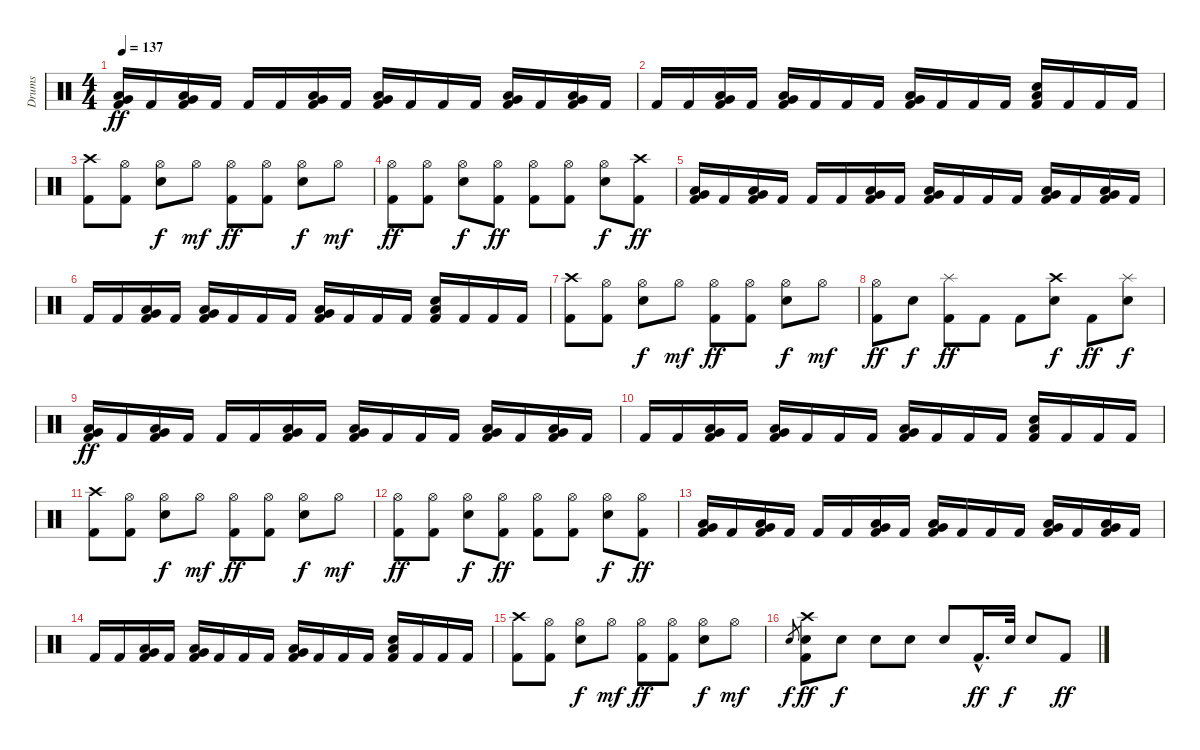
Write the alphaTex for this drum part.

\track ("Drums" "Drums") {instrument percussion}
\staff {score}
\articulation defaults
\ts (4 4)
\tempo 137
\clef neutral
\ks c
("Very Low Tom (hit)" "Low Floor Tom (hit)" "Kick (hit) 2").16{dy ff} "Kick (hit) 2".16 ("Very Low Tom (hit)" "Low Floor Tom (hit)" "Kick (hit) 2").16 "Kick (hit) 2".16 "Kick (hit) 2".16 "Kick (hit) 2".16 ("Very Low Tom (hit)" "Low Floor Tom (hit)" "Kick (hit) 2").16 "Kick (hit) 2".16 ("Very Low Tom (hit)" "Low Floor Tom (hit)" "Kick (hit) 2").16 "Kick (hit) 2".16 "Kick (hit) 2".16 "Kick (hit) 2".16 ("Very Low Tom (hit)" "Low Floor Tom (hit)" "Kick (hit) 2").16 "Kick (hit) 2".16 ("Very Low Tom (hit)" "Low Floor Tom (hit)" "Kick (hit) 2").16 "Kick (hit) 2".16 |
"Kick (hit) 2".16 "Kick (hit) 2".16 ("Very Low Tom (hit)" "Low Floor Tom (hit)" "Kick (hit) 2").16 "Kick (hit) 2".16 ("Very Low Tom (hit)" "Low Floor Tom (hit)" "Kick (hit) 2").16 "Kick (hit) 2".16 "Kick (hit) 2".16 "Kick (hit) 2".16 ("Very Low Tom (hit)" "Low Floor Tom (hit)" "Kick (hit) 2").16 "Kick (hit) 2".16 "Kick (hit) 2".16 "Kick (hit) 2".16 ("Electric Snare (hit)" "Low Floor Tom (hit)" "Kick (hit) 2").16 "Kick (hit) 2".16 "Kick (hit) 2".16 "Kick (hit) 2".16 |
("Crash high (hit)" "Kick (hit) 2").8 ("Hi-Hat (open)" "Kick (hit) 2").8 ("Hi-Hat (open)" "Electric Snare (hit)").8{dy f} "Hi-Hat (open)".8{dy mf} ("Hi-Hat (open)" "Kick (hit) 2").8{dy ff} ("Hi-Hat (open)" "Kick (hit) 2").8 ("Hi-Hat (open)" "Electric Snare (hit)").8{dy f} "Hi-Hat (open)".8{dy mf} |
("Hi-Hat (open)" "Kick (hit) 2").8{dy ff} ("Hi-Hat (open)" "Kick (hit) 2").8 ("Hi-Hat (open)" "Electric Snare (hit)").8{dy f} ("Hi-Hat (open)" "Kick (hit) 2").8{dy ff} ("Hi-Hat (open)" "Kick (hit) 2").8 ("Hi-Hat (open)" "Kick (hit) 2").8 ("Hi-Hat (open)" "Electric Snare (hit)").8{dy f} ("Crash high (hit)" "Kick (hit) 2").8{dy ff} |
("Very Low Tom (hit)" "Low Floor Tom (hit)" "Kick (hit) 2").16 "Kick (hit) 2".16 ("Very Low Tom (hit)" "Low Floor Tom (hit)" "Kick (hit) 2").16 "Kick (hit) 2".16 "Kick (hit) 2".16 "Kick (hit) 2".16 ("Very Low Tom (hit)" "Low Floor Tom (hit)" "Kick (hit) 2").16 "Kick (hit) 2".16 ("Very Low Tom (hit)" "Low Floor Tom (hit)" "Kick (hit) 2").16 "Kick (hit) 2".16 "Kick (hit) 2".16 "Kick (hit) 2".16 ("Very Low Tom (hit)" "Low Floor Tom (hit)" "Kick (hit) 2").16 "Kick (hit) 2".16 ("Very Low Tom (hit)" "Low Floor Tom (hit)" "Kick (hit) 2").16 "Kick (hit) 2".16 |
"Kick (hit) 2".16 "Kick (hit) 2".16 ("Very Low Tom (hit)" "Low Floor Tom (hit)" "Kick (hit) 2").16 "Kick (hit) 2".16 ("Very Low Tom (hit)" "Low Floor Tom (hit)" "Kick (hit) 2").16 "Kick (hit) 2".16 "Kick (hit) 2".16 "Kick (hit) 2".16 ("Very Low Tom (hit)" "Low Floor Tom (hit)" "Kick (hit) 2").16 "Kick (hit) 2".16 "Kick (hit) 2".16 "Kick (hit) 2".16 ("Electric Snare (hit)" "Low Floor Tom (hit)" "Kick (hit) 2").16 "Kick (hit) 2".16 "Kick (hit) 2".16 "Kick (hit) 2".16 |
("Crash high (hit)" "Kick (hit) 2").8 ("Hi-Hat (open)" "Kick (hit) 2").8 ("Hi-Hat (open)" "Electric Snare (hit)").8{dy f} "Hi-Hat (open)".8{dy mf} ("Hi-Hat (open)" "Kick (hit) 2").8{dy ff} ("Hi-Hat (open)" "Kick (hit) 2").8 ("Hi-Hat (open)" "Electric Snare (hit)").8{dy f} "Hi-Hat (open)".8{dy mf} |
("Hi-Hat (open)" "Kick (hit) 2").8{dy ff} "Electric Snare (hit)".8{dy f} ("Splash (hit)" "Kick (hit) 2").8{dy ff} "Kick (hit) 2".8 "Kick (hit) 2".8 ("Crash high (hit)" "Electric Snare (hit)").8{dy f} "Kick (hit) 2".8{dy ff} ("Splash (hit)" "Electric Snare (hit)").8{dy f} |
("Very Low Tom (hit)" "Low Floor Tom (hit)" "Kick (hit) 2").16{dy ff} "Kick (hit) 2".16 ("Very Low Tom (hit)" "Low Floor Tom (hit)" "Kick (hit) 2").16 "Kick (hit) 2".16 "Kick (hit) 2".16 "Kick (hit) 2".16 ("Very Low Tom (hit)" "Low Floor Tom (hit)" "Kick (hit) 2").16 "Kick (hit) 2".16 ("Very Low Tom (hit)" "Low Floor Tom (hit)" "Kick (hit) 2").16 "Kick (hit) 2".16 "Kick (hit) 2".16 "Kick (hit) 2".16 ("Very Low Tom (hit)" "Low Floor Tom (hit)" "Kick (hit) 2").16 "Kick (hit) 2".16 ("Very Low Tom (hit)" "Low Floor Tom (hit)" "Kick (hit) 2").16 "Kick (hit) 2".16 |
"Kick (hit) 2".16 "Kick (hit) 2".16 ("Very Low Tom (hit)" "Low Floor Tom (hit)" "Kick (hit) 2").16 "Kick (hit) 2".16 ("Very Low Tom (hit)" "Low Floor Tom (hit)" "Kick (hit) 2").16 "Kick (hit) 2".16 "Kick (hit) 2".16 "Kick (hit) 2".16 ("Very Low Tom (hit)" "Low Floor Tom (hit)" "Kick (hit) 2").16 "Kick (hit) 2".16 "Kick (hit) 2".16 "Kick (hit) 2".16 ("Electric Snare (hit)" "Low Floor Tom (hit)" "Kick (hit) 2").16 "Kick (hit) 2".16 "Kick (hit) 2".16 "Kick (hit) 2".16 |
("Crash high (hit)" "Kick (hit) 2").8 ("Hi-Hat (open)" "Kick (hit) 2").8 ("Hi-Hat (open)" "Electric Snare (hit)").8{dy f} "Hi-Hat (open)".8{dy mf} ("Hi-Hat (open)" "Kick (hit) 2").8{dy ff} ("Hi-Hat (open)" "Kick (hit) 2").8 ("Hi-Hat (open)" "Electric Snare (hit)").8{dy f} "Hi-Hat (open)".8{dy mf} |
("Hi-Hat (open)" "Kick (hit) 2").8{dy ff} ("Hi-Hat (open)" "Kick (hit) 2").8 ("Hi-Hat (open)" "Electric Snare (hit)").8{dy f} ("Hi-Hat (open)" "Kick (hit) 2").8{dy ff} ("Hi-Hat (open)" "Kick (hit) 2").8 ("Hi-Hat (open)" "Kick (hit) 2").8 ("Hi-Hat (open)" "Electric Snare (hit)").8{dy f} ("Hi-Hat (open)" "Kick (hit) 2").8{dy ff} |
("Very Low Tom (hit)" "Low Floor Tom (hit)" "Kick (hit) 2").16 "Kick (hit) 2".16 ("Very Low Tom (hit)" "Low Floor Tom (hit)" "Kick (hit) 2").16 "Kick (hit) 2".16 "Kick (hit) 2".16 "Kick (hit) 2".16 ("Very Low Tom (hit)" "Low Floor Tom (hit)" "Kick (hit) 2").16 "Kick (hit) 2".16 ("Very Low Tom (hit)" "Low Floor Tom (hit)" "Kick (hit) 2").16 "Kick (hit) 2".16 "Kick (hit) 2".16 "Kick (hit) 2".16 ("Very Low Tom (hit)" "Low Floor Tom (hit)" "Kick (hit) 2").16 "Kick (hit) 2".16 ("Very Low Tom (hit)" "Low Floor Tom (hit)" "Kick (hit) 2").16 "Kick (hit) 2".16 |
"Kick (hit) 2".16 "Kick (hit) 2".16 ("Very Low Tom (hit)" "Low Floor Tom (hit)" "Kick (hit) 2").16 "Kick (hit) 2".16 ("Very Low Tom (hit)" "Low Floor Tom (hit)" "Kick (hit) 2").16 "Kick (hit) 2".16 "Kick (hit) 2".16 "Kick (hit) 2".16 ("Very Low Tom (hit)" "Low Floor Tom (hit)" "Kick (hit) 2").16 "Kick (hit) 2".16 "Kick (hit) 2".16 "Kick (hit) 2".16 ("Electric Snare (hit)" "Low Floor Tom (hit)" "Kick (hit) 2").16 "Kick (hit) 2".16 "Kick (hit) 2".16 "Kick (hit) 2".16 |
("Crash high (hit)" "Kick (hit) 2").8 ("Hi-Hat (open)" "Kick (hit) 2").8 ("Hi-Hat (open)" "Electric Snare (hit)").8{dy f} "Hi-Hat (open)".8{dy mf} ("Hi-Hat (open)" "Kick (hit) 2").8{dy ff} ("Hi-Hat (open)" "Kick (hit) 2").8 ("Hi-Hat (open)" "Electric Snare (hit)").8{dy f} "Hi-Hat (open)".8{dy mf} |
"Electric Snare (hit)".8{gr dy f} ("Crash high (hit)" "Electric Snare (hit)" "Kick (hit) 2").8{dy ff} "Electric Snare (hit)".8{dy f} "Electric Snare (hit)".8 "Electric Snare (hit)".8 "Electric Snare (hit)".8 "Kick (hit) 2"{hac}.16{d dy ff} "Electric Snare (hit)".32{dy f} "Electric Snare (hit)".8 "Kick (hit) 2".8{dy ff}
